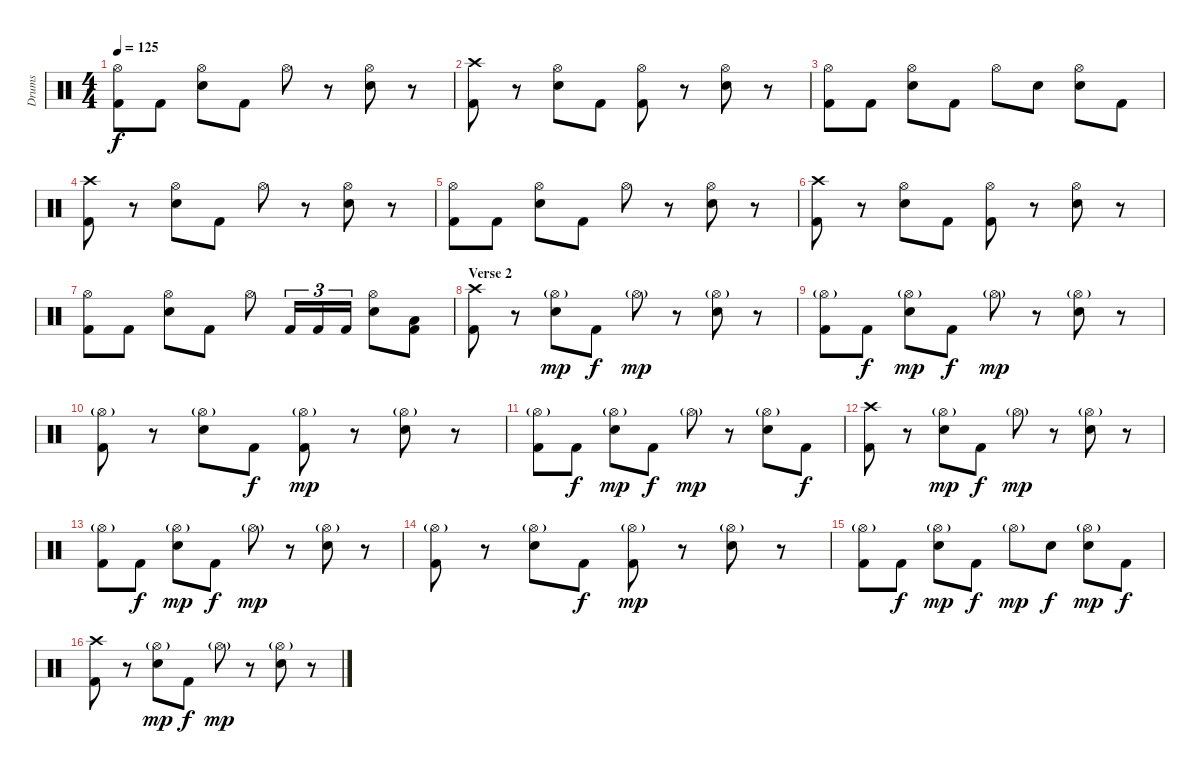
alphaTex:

\track ("Drums" "Drums") {instrument percussion}
\staff {score}
\articulation defaults
\ts (4 4)
\tempo 125
\clef neutral
\ks c
("Hi-Hat (open)" "Kick (hit) 2").8{dy f} "Kick (hit) 2".8 ("Hi-Hat (open)" "Snare (hit) 2").8 "Kick (hit) 2".8 "Hi-Hat (open)".8 r.8 ("Hi-Hat (open)" "Snare (hit) 2").8 r.8 |
("Crash high (hit)" "Kick (hit) 2").8 r.8 ("Hi-Hat (open)" "Snare (hit) 2").8 "Kick (hit) 2".8 ("Hi-Hat (open)" "Kick (hit) 2").8 r.8 ("Hi-Hat (open)" "Snare (hit) 2").8 r.8 |
("Hi-Hat (open)" "Kick (hit) 2").8 "Kick (hit) 2".8 ("Hi-Hat (open)" "Snare (hit) 2").8 "Kick (hit) 2".8 "Hi-Hat (open)".8 "Snare (hit) 2".8 ("Hi-Hat (open)" "Snare (hit) 2").8 "Kick (hit) 2".8 |
("Crash high (hit)" "Kick (hit) 2").8 r.8 ("Hi-Hat (open)" "Snare (hit) 2").8 "Kick (hit) 2".8 "Hi-Hat (open)".8 r.8 ("Hi-Hat (open)" "Snare (hit) 2").8 r.8 |
("Hi-Hat (open)" "Kick (hit) 2").8 "Kick (hit) 2".8 ("Hi-Hat (open)" "Snare (hit) 2").8 "Kick (hit) 2".8 "Hi-Hat (open)".8 r.8 ("Hi-Hat (open)" "Snare (hit) 2").8 r.8 |
("Crash high (hit)" "Kick (hit) 2").8 r.8 ("Hi-Hat (open)" "Snare (hit) 2").8 "Kick (hit) 2".8 ("Hi-Hat (open)" "Kick (hit) 2").8 r.8 ("Hi-Hat (open)" "Snare (hit) 2").8 r.8 |
("Hi-Hat (open)" "Kick (hit) 2").8 "Kick (hit) 2".8 ("Hi-Hat (open)" "Snare (hit) 2").8 "Kick (hit) 2".8 "Hi-Hat (open)".8 "Kick (hit) 2".16{tu (3 2)} "Kick (hit) 2".16{tu (3 2)} "Kick (hit) 2".16{tu (3 2)} ("Hi-Hat (open)" "Snare (hit) 2").8 ("Low Tom (hit)" "Kick (hit) 2").8 |
\section ("" "Verse 2")
("Crash high (hit)" "Kick (hit) 2").8 r.8 ("Hi-Hat (open)"{g} "Snare (hit) 2").8{dy mp} "Kick (hit) 2".8{dy f} "Hi-Hat (open)"{g}.8{dy mp} r.8 ("Hi-Hat (open)"{g} "Snare (hit) 2").8 r.8 |
("Hi-Hat (open)"{g} "Kick (hit) 2").8 "Kick (hit) 2".8{dy f} ("Hi-Hat (open)"{g} "Snare (hit) 2").8{dy mp} "Kick (hit) 2".8{dy f} "Hi-Hat (open)"{g}.8{dy mp} r.8 ("Hi-Hat (open)"{g} "Snare (hit) 2").8 r.8 |
("Hi-Hat (open)"{g} "Kick (hit) 2").8 r.8 ("Hi-Hat (open)"{g} "Snare (hit) 2").8 "Kick (hit) 2".8{dy f} ("Hi-Hat (open)"{g} "Kick (hit) 2").8{dy mp} r.8 ("Hi-Hat (open)"{g} "Snare (hit) 2").8 r.8 |
("Hi-Hat (open)"{g} "Kick (hit) 2").8 "Kick (hit) 2".8{dy f} ("Hi-Hat (open)"{g} "Snare (hit) 2").8{dy mp} "Kick (hit) 2".8{dy f} "Hi-Hat (open)"{g}.8{dy mp} r.8 ("Hi-Hat (open)"{g} "Snare (hit) 2").8 "Kick (hit) 2".8{dy f} |
("Crash high (hit)" "Kick (hit) 2").8 r.8 ("Hi-Hat (open)"{g} "Snare (hit) 2").8{dy mp} "Kick (hit) 2".8{dy f} "Hi-Hat (open)"{g}.8{dy mp} r.8 ("Hi-Hat (open)"{g} "Snare (hit) 2").8 r.8 |
("Hi-Hat (open)"{g} "Kick (hit) 2").8 "Kick (hit) 2".8{dy f} ("Hi-Hat (open)"{g} "Snare (hit) 2").8{dy mp} "Kick (hit) 2".8{dy f} "Hi-Hat (open)"{g}.8{dy mp} r.8 ("Hi-Hat (open)"{g} "Snare (hit) 2").8 r.8 |
("Hi-Hat (open)"{g} "Kick (hit) 2").8 r.8 ("Hi-Hat (open)"{g} "Snare (hit) 2").8 "Kick (hit) 2".8{dy f} ("Hi-Hat (open)"{g} "Kick (hit) 2").8{dy mp} r.8 ("Hi-Hat (open)"{g} "Snare (hit) 2").8 r.8 |
("Hi-Hat (open)"{g} "Kick (hit) 2").8 "Kick (hit) 2".8{dy f} ("Hi-Hat (open)"{g} "Snare (hit) 2").8{dy mp} "Kick (hit) 2".8{dy f} "Hi-Hat (open)"{g}.8{dy mp} "Snare (hit) 2".8{dy f} ("Hi-Hat (open)"{g} "Snare (hit) 2").8{dy mp} "Kick (hit) 2".8{dy f} |
("Crash high (hit)" "Kick (hit) 2").8 r.8 ("Hi-Hat (open)"{g} "Snare (hit) 2").8{dy mp} "Kick (hit) 2".8{dy f} "Hi-Hat (open)"{g}.8{dy mp} r.8 ("Hi-Hat (open)"{g} "Snare (hit) 2").8 r.8
